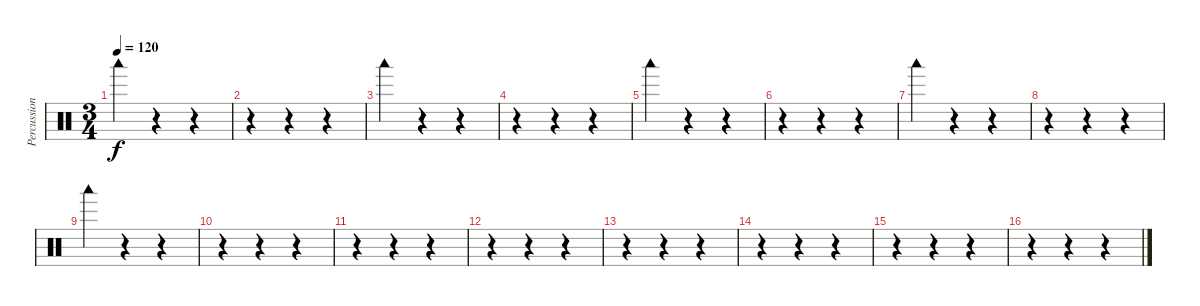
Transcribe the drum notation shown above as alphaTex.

\track ("Percussions" "Percussion") {instrument percussion}
\staff {score}
\articulation defaults
\ts (3 4)
\tempo 120
\clef neutral
\ks c "Woodblock low (hit)".4{dy f}
r.4 r.4 |
r.4 r.4 r.4 |
"Woodblock low (hit)".4 r.4 r.4 |
r.4 r.4 r.4 |
"Woodblock low (hit)".4 r.4 r.4 |
r.4 r.4 r.4 |
"Woodblock low (hit)".4 r.4 r.4 |
r.4 r.4 r.4 |
"Woodblock low (hit)".4 r.4 r.4 |
r.4 r.4 r.4 |
r.4 r.4 r.4 |
r.4 r.4 r.4 |
r.4 r.4 r.4 |
r.4 r.4 r.4 |
r.4 r.4 r.4 |
r.4 r.4 r.4
